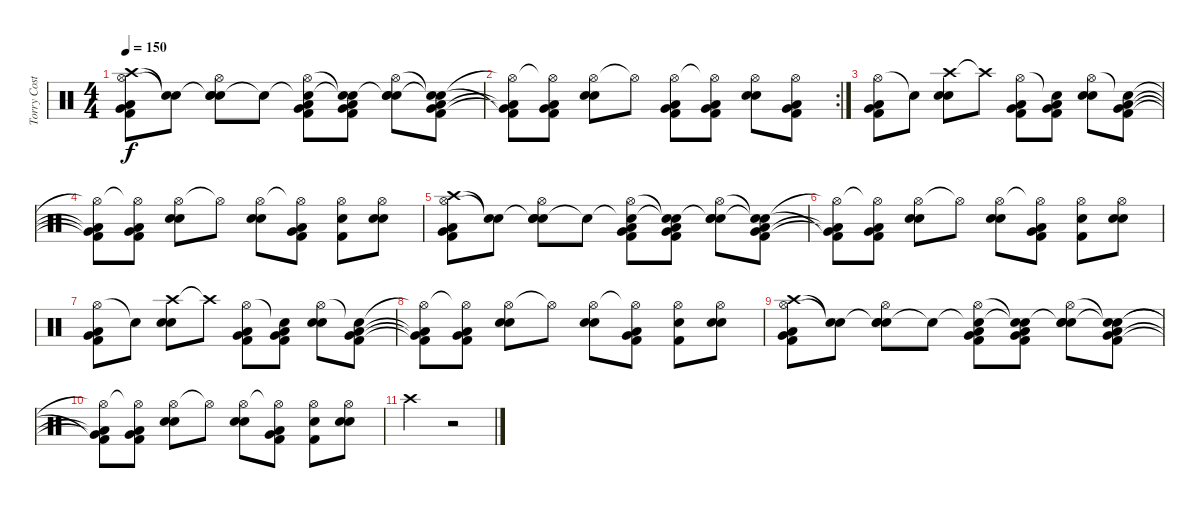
\track ("Torry Costellano" "Torry Cost") {instrument percussion bank 127}
\staff {score}
\articulation defaults
\ts (4 4)
\tempo 150
\clef neutral
\ks c
("Crash high (hit)" "Hi-Hat (open)" "Kick (hit) 2" "Very Low Tom (hit)" "Low Tom (hit)").8{dy f} ("Snare (hit)"{t} "Snare (hit)"{t}).8 ("Snare (hit)"{t} "Hi-Hat (open)" "Electric Snare (hit)" "Snare (hit) 2").8 "Snare (hit)"{t}.8 ("Snare (hit)"{t} "Hi-Hat (open)" "Kick (hit) 2" "Very Low Tom (hit)" "Low Tom (hit)").8 ("Snare (hit)"{t} "Snare (hit)"{t} "Kick (hit) 2" "Very Low Tom (hit)" "Low Tom (hit)").8 ("Snare (hit)"{t} "Hi-Hat (open)" "Electric Snare (hit)" "Snare (hit) 2").8 ("Snare (hit)"{t} "Snare (hit)"{t} "Kick (hit) 2" "Very Low Tom (hit)" "Low Tom (hit)").8 |
\rc 2
("Hi-Hat (open)"{t} "Kick (hit) 2"{t} "Very Low Tom (hit)"{t} "Low Tom (hit)"{t}).8 ("Hi-Hat (open)"{t} "Low Tom (hit)" "Very Low Tom (hit)" "Kick (hit) 2").8 ("Hi-Hat (open)" "Electric Snare (hit)" "Snare (hit) 2").8 "Hi-Hat (open)"{t}.8 ("Hi-Hat (open)" "Low Tom (hit)" "Very Low Tom (hit)" "Kick (hit) 2").8 ("Hi-Hat (open)"{t} "Low Tom (hit)" "Very Low Tom (hit)" "Kick (hit) 2").8 ("Hi-Hat (open)" "Snare (hit) 2" "Electric Snare (hit)").8 ("Hi-Hat (open)" "Low Tom (hit)" "Very Low Tom (hit)" "Kick (hit) 2").8 |
("Hi-Hat (open)" "Kick (hit) 2" "Very Low Tom (hit)" "Low Tom (hit)").8 "Snare (hit)"{t}.8 ("Crash high (hit)" "Electric Snare (hit)" "Snare (hit) 2").8 "Crash high (hit)"{t}.8 ("Hi-Hat (open)" "Kick (hit) 2" "Very Low Tom (hit)" "Low Tom (hit)").8 ("Snare (hit)"{t} "Kick (hit) 2" "Very Low Tom (hit)" "Low Tom (hit)").8 ("Hi-Hat (open)" "Electric Snare (hit)" "Snare (hit) 2").8 ("Snare (hit)"{t} "Kick (hit) 2" "Very Low Tom (hit)" "Low Tom (hit)").8 |
("Hi-Hat (open)"{t} "Kick (hit) 2"{t} "Very Low Tom (hit)"{t} "Low Tom (hit)"{t}).8 ("Hi-Hat (open)"{t} "Low Tom (hit)" "Very Low Tom (hit)" "Kick (hit) 2").8 ("Hi-Hat (open)" "Electric Snare (hit)" "Snare (hit) 2").8 "Hi-Hat (open)"{t}.8 ("Hi-Hat (open)" "Snare (hit) 2" "Electric Snare (hit)").8 ("Hi-Hat (open)"{t} "Low Tom (hit)" "Very Low Tom (hit)" "Kick (hit) 2").8 ("Hi-Hat (open)" "Snare (hit) 2" "Kick (hit) 2").8 ("Hi-Hat (open)" "Snare (hit) 2" "Electric Snare (hit)").8 |
("Crash high (hit)" "Hi-Hat (open)" "Kick (hit) 2" "Very Low Tom (hit)" "Low Tom (hit)").8 ("Snare (hit)"{t} "Snare (hit)"{t}).8 ("Snare (hit)"{t} "Hi-Hat (open)" "Electric Snare (hit)" "Snare (hit) 2").8 "Snare (hit)"{t}.8 ("Snare (hit)"{t} "Hi-Hat (open)" "Kick (hit) 2" "Very Low Tom (hit)" "Low Tom (hit)").8 ("Snare (hit)"{t} "Snare (hit)"{t} "Kick (hit) 2" "Very Low Tom (hit)" "Low Tom (hit)").8 ("Snare (hit)"{t} "Hi-Hat (open)" "Electric Snare (hit)" "Snare (hit) 2").8 ("Snare (hit)"{t} "Snare (hit)"{t} "Kick (hit) 2" "Very Low Tom (hit)" "Low Tom (hit)").8 |
("Hi-Hat (open)"{t} "Kick (hit) 2"{t} "Very Low Tom (hit)"{t} "Low Tom (hit)"{t}).8 ("Hi-Hat (open)"{t} "Low Tom (hit)" "Very Low Tom (hit)" "Kick (hit) 2").8 ("Hi-Hat (open)" "Electric Snare (hit)" "Snare (hit) 2").8 "Hi-Hat (open)"{t}.8 ("Hi-Hat (open)" "Snare (hit) 2" "Electric Snare (hit)").8 ("Hi-Hat (open)"{t} "Low Tom (hit)" "Very Low Tom (hit)" "Kick (hit) 2").8 ("Hi-Hat (open)" "Snare (hit) 2" "Kick (hit) 2").8 ("Hi-Hat (open)" "Snare (hit) 2" "Electric Snare (hit)").8 |
("Hi-Hat (open)" "Kick (hit) 2" "Very Low Tom (hit)" "Low Tom (hit)").8 "Snare (hit)"{t}.8 ("Crash high (hit)" "Electric Snare (hit)" "Snare (hit) 2").8 "Crash high (hit)"{t}.8 ("Hi-Hat (open)" "Kick (hit) 2" "Very Low Tom (hit)" "Low Tom (hit)").8 ("Snare (hit)"{t} "Kick (hit) 2" "Very Low Tom (hit)" "Low Tom (hit)").8 ("Hi-Hat (open)" "Electric Snare (hit)" "Snare (hit) 2").8 ("Snare (hit)"{t} "Kick (hit) 2" "Very Low Tom (hit)" "Low Tom (hit)").8 |
("Hi-Hat (open)"{t} "Kick (hit) 2"{t} "Very Low Tom (hit)"{t} "Low Tom (hit)"{t}).8 ("Hi-Hat (open)"{t} "Low Tom (hit)" "Very Low Tom (hit)" "Kick (hit) 2").8 ("Hi-Hat (open)" "Electric Snare (hit)" "Snare (hit) 2").8 "Hi-Hat (open)"{t}.8 ("Hi-Hat (open)" "Snare (hit) 2" "Electric Snare (hit)").8 ("Hi-Hat (open)"{t} "Low Tom (hit)" "Very Low Tom (hit)" "Kick (hit) 2").8 ("Hi-Hat (open)" "Snare (hit) 2" "Kick (hit) 2").8 ("Hi-Hat (open)" "Snare (hit) 2" "Electric Snare (hit)").8 |
("Crash high (hit)" "Hi-Hat (open)" "Kick (hit) 2" "Very Low Tom (hit)" "Low Tom (hit)").8 ("Snare (hit)"{t} "Snare (hit)"{t}).8 ("Snare (hit)"{t} "Hi-Hat (open)" "Electric Snare (hit)" "Snare (hit) 2").8 "Snare (hit)"{t}.8 ("Snare (hit)"{t} "Hi-Hat (open)" "Kick (hit) 2" "Very Low Tom (hit)" "Low Tom (hit)").8 ("Snare (hit)"{t} "Snare (hit)"{t} "Kick (hit) 2" "Very Low Tom (hit)" "Low Tom (hit)").8 ("Snare (hit)"{t} "Hi-Hat (open)" "Electric Snare (hit)" "Snare (hit) 2").8 ("Snare (hit)"{t} "Snare (hit)"{t} "Kick (hit) 2" "Very Low Tom (hit)" "Low Tom (hit)").8 |
("Hi-Hat (open)"{t} "Kick (hit) 2"{t} "Very Low Tom (hit)"{t} "Low Tom (hit)"{t}).8 ("Hi-Hat (open)"{t} "Low Tom (hit)" "Very Low Tom (hit)" "Kick (hit) 2").8 ("Hi-Hat (open)" "Electric Snare (hit)" "Snare (hit) 2").8 "Hi-Hat (open)"{t}.8 ("Hi-Hat (open)" "Snare (hit) 2" "Electric Snare (hit)").8 ("Hi-Hat (open)"{t} "Low Tom (hit)" "Very Low Tom (hit)" "Kick (hit) 2").8 ("Hi-Hat (open)" "Snare (hit) 2" "Kick (hit) 2").8 ("Hi-Hat (open)" "Snare (hit) 2" "Electric Snare (hit)").8 |
"Crash high (hit)".2 r.2
